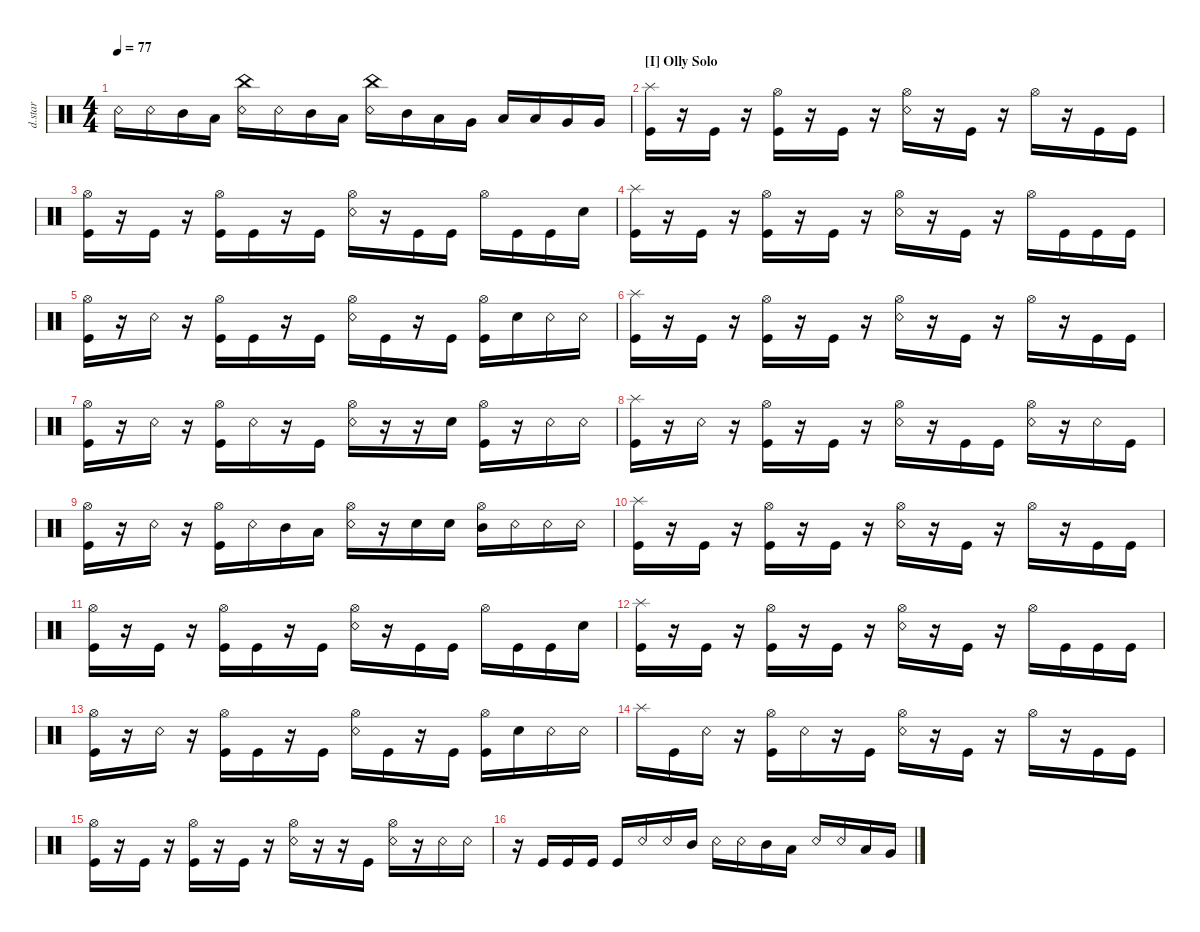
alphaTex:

\defaultSystemsLayout 4
\hideDynamics
\bracketExtendMode nobrackets
\otherSystemsTrackNameOrientation horizontal
\track ("Drumkit Star" "d.star") {instrument percussion}
\staff {score}
\articulation defaults
\ts (4 4)
\tempo 77
\clef neutral
\ks c "Snare (rim shot)".16{dy ff} "Snare (rim shot)".16 "Mid Tom (hit)".16 "Low Tom (hit)".16
("Snare (rim shot)" "China (hit)").16 "Snare (rim shot)".16 "Mid Tom (hit)".16 "Low Tom (hit)".16 ("Snare (rim shot)" "China (hit)").16 "Mid Tom (hit)".16 "Low Tom (hit)".16 "Very Low Tom (hit)".16 "Low Tom (hit)".16 "Low Tom (hit)".16 "Very Low Tom (hit)".16 "Very Low Tom (hit)".16 |
\section ("I" "Olly Solo")
("Kick (hit)" "Splash (hit)").16 r.16 "Kick (hit)".16 r.16 ("Kick (hit)" "Hi-Hat (open)").16 r.16 "Kick (hit)".16 r.16 ("Snare (rim shot)" "Hi-Hat (open)").16 r.16 "Kick (hit)".16 r.16 "Hi-Hat (open)".16 r.16 "Kick (hit)".16 "Kick (hit)".16 |
("Kick (hit)" "Hi-Hat (open)").16 r.16 "Kick (hit)".16 r.16 ("Kick (hit)" "Hi-Hat (open)").16 "Kick (hit)".16 r.16 "Kick (hit)".16 ("Snare (rim shot)" "Hi-Hat (open)").16 r.16 "Kick (hit)".16 "Kick (hit)".16 "Hi-Hat (open)".16 "Kick (hit)".16 "Kick (hit)".16 "Snare (hit) 2".16{dy mp} |
("Kick (hit)" "Splash (hit)").16{dy ff} r.16 "Kick (hit)".16 r.16 ("Kick (hit)" "Hi-Hat (open)").16 r.16 "Kick (hit)".16 r.16 ("Snare (rim shot)" "Hi-Hat (open)").16 r.16 "Kick (hit)".16 r.16 "Hi-Hat (open)".16 "Kick (hit)".16 "Kick (hit)".16 "Kick (hit)".16 |
("Kick (hit)" "Hi-Hat (open)").16 r.16 "Snare (rim shot)".16 r.16 ("Kick (hit)" "Hi-Hat (open)").16 "Kick (hit)".16 r.16 "Kick (hit)".16 ("Snare (rim shot)" "Hi-Hat (open)").16 "Kick (hit)".16 r.16 "Kick (hit)".16 ("Kick (hit)" "Hi-Hat (open)").16 "Snare (hit) 2".16 "Snare (rim shot)".16 "Snare (rim shot)".16 |
("Kick (hit)" "Splash (hit)").16 r.16 "Kick (hit)".16 r.16 ("Kick (hit)" "Hi-Hat (open)").16 r.16 "Kick (hit)".16 r.16 ("Snare (rim shot)" "Hi-Hat (open)").16 r.16 "Kick (hit)".16 r.16 "Hi-Hat (open)".16 r.16 "Kick (hit)".16 "Kick (hit)".16 |
("Kick (hit)" "Hi-Hat (open)").16 r.16 "Snare (rim shot)".16 r.16 ("Kick (hit)" "Hi-Hat (open)").16 "Snare (rim shot)".16 r.16 "Kick (hit)".16 ("Snare (rim shot)" "Hi-Hat (open)").16 r.16 r.16 "Snare (hit) 2".16 ("Kick (hit)" "Hi-Hat (open)").16 r.16 "Snare (rim shot)".16 "Snare (rim shot)".16 |
("Kick (hit)" "Splash (hit)").16 r.16 "Snare (rim shot)".16 r.16 ("Kick (hit)" "Hi-Hat (open)").16 r.16 "Kick (hit)".16 r.16 ("Snare (rim shot)" "Hi-Hat (open)").16 r.16 "Kick (hit)".16 "Kick (hit)".16 ("Snare (rim shot)" "Hi-Hat (open)").16 r.16 "Snare (rim shot)".16 "Kick (hit)".16 |
("Kick (hit)" "Hi-Hat (open)").16 r.16 "Snare (rim shot)".16 r.16 ("Kick (hit)" "Hi-Hat (open)").16 "Snare (rim shot)".16 "Mid Tom (hit)".16 "Low Tom (hit)".16 ("Snare (rim shot)" "Hi-Hat (open)").16 r.16 "Snare (hit) 2".16 "Snare (hit) 2".16 ("Mid Tom (hit)" "Hi-Hat (open)").16 "Snare (rim shot)".16 "Snare (rim shot)".16 "Snare (rim shot)".16 |
("Kick (hit)" "Splash (hit)").16 r.16 "Kick (hit)".16 r.16 ("Kick (hit)" "Hi-Hat (open)").16 r.16 "Kick (hit)".16 r.16 ("Snare (rim shot)" "Hi-Hat (open)").16 r.16 "Kick (hit)".16 r.16 "Hi-Hat (open)".16 r.16 "Kick (hit)".16 "Kick (hit)".16 |
("Kick (hit)" "Hi-Hat (open)").16 r.16 "Kick (hit)".16 r.16 ("Kick (hit)" "Hi-Hat (open)").16 "Kick (hit)".16 r.16 "Kick (hit)".16 ("Snare (rim shot)" "Hi-Hat (open)").16 r.16 "Kick (hit)".16 "Kick (hit)".16 "Hi-Hat (open)".16 "Kick (hit)".16 "Kick (hit)".16 "Snare (hit) 2".16{dy mp} |
("Kick (hit)" "Splash (hit)").16{dy ff} r.16 "Kick (hit)".16 r.16 ("Kick (hit)" "Hi-Hat (open)").16 r.16 "Kick (hit)".16 r.16 ("Snare (rim shot)" "Hi-Hat (open)").16 r.16 "Kick (hit)".16 r.16 "Hi-Hat (open)".16 "Kick (hit)".16 "Kick (hit)".16 "Kick (hit)".16 |
("Kick (hit)" "Hi-Hat (open)").16 r.16 "Snare (rim shot)".16 r.16 ("Kick (hit)" "Hi-Hat (open)").16 "Kick (hit)".16 r.16 "Kick (hit)".16 ("Snare (rim shot)" "Hi-Hat (open)").16 "Kick (hit)".16 r.16 "Kick (hit)".16 ("Kick (hit)" "Hi-Hat (open)").16 "Snare (hit) 2".16 "Snare (rim shot)".16 "Snare (rim shot)".16 |
"Splash (hit)".16 "Kick (hit)".16 "Snare (rim shot)".16 r.16 ("Kick (hit)" "Hi-Hat (open)").16 "Snare (rim shot)".16 r.16 "Kick (hit)".16 ("Snare (rim shot)" "Hi-Hat (open)").16 r.16 "Kick (hit)".16 r.16 "Hi-Hat (open)".16 r.16 "Kick (hit)".16 "Kick (hit)".16 |
("Kick (hit)" "Hi-Hat (open)").16 r.16 "Kick (hit)".16 r.16 ("Kick (hit)" "Hi-Hat (open)").16 r.16 "Kick (hit)".16 r.16 ("Snare (rim shot)" "Hi-Hat (open)").16 r.16 r.16 "Kick (hit)".16 ("Snare (rim shot)" "Hi-Hat (open)").16 r.16 "Snare (rim shot)".16 "Snare (rim shot)".16 |
r.16 "Kick (hit)".16 "Kick (hit)".16 "Kick (hit)".16 "Kick (hit)".16 "Snare (rim shot)".16 "Snare (rim shot)".16 "Mid Tom (hit)".16 "Snare (rim shot)".16 "Snare (rim shot)".16 "Mid Tom (hit)".16 "Low Tom (hit)".16 "Snare (rim shot)".16 "Snare (rim shot)".16 "Low Tom (hit)".16 "Very Low Tom (hit)".16
